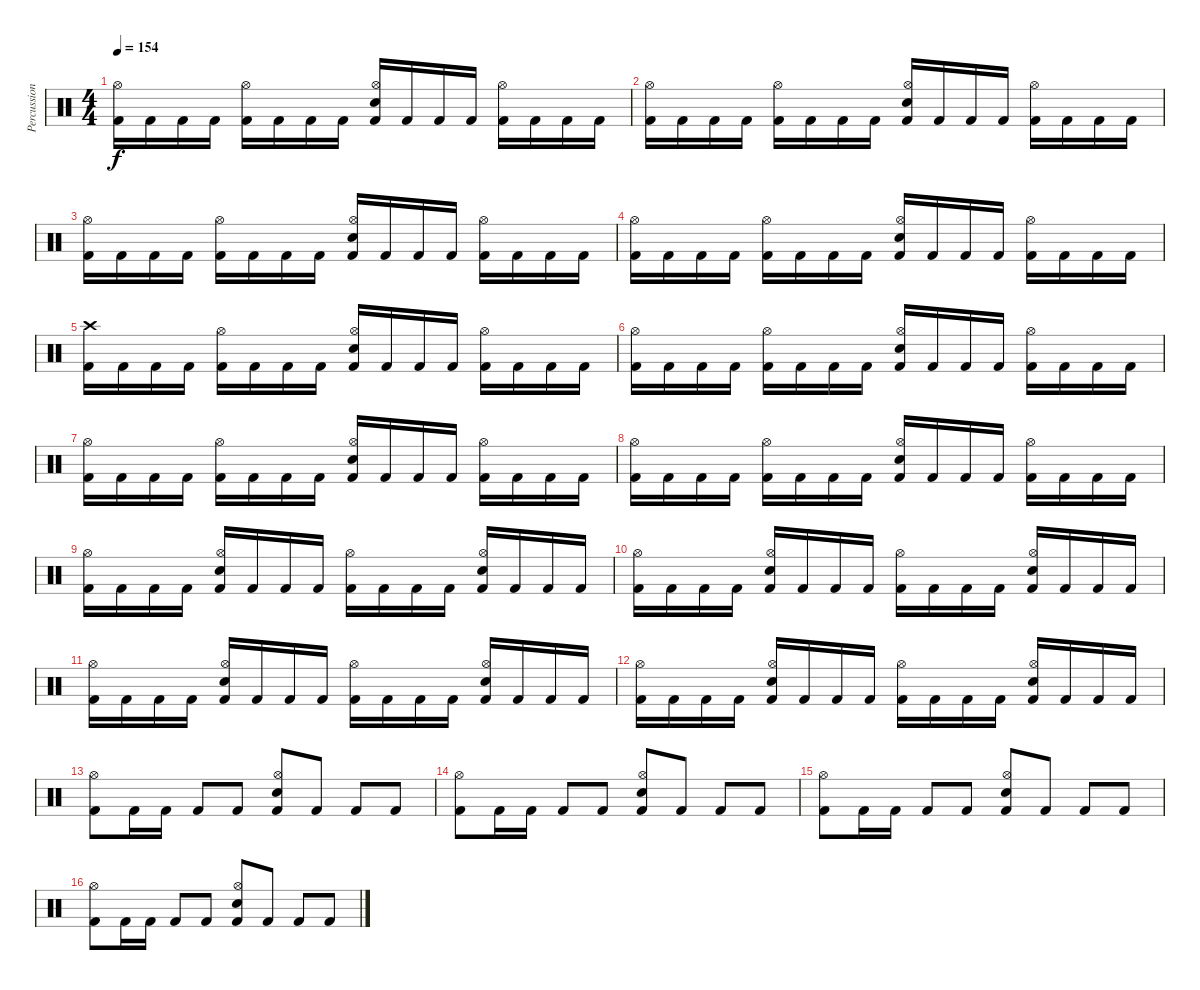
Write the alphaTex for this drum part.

\track ("Percussion" "Percussion") {instrument percussion}
\staff {score}
\articulation defaults
\ts (4 4)
\tempo 154
\clef neutral
\ks c
("Kick (hit) 2" "Hi-Hat (open)").16{dy f} "Kick (hit) 2".16 "Kick (hit) 2".16 "Kick (hit) 2".16 ("Kick (hit) 2" "Hi-Hat (open)").16 "Kick (hit) 2".16 "Kick (hit) 2".16 "Kick (hit) 2".16 ("Kick (hit) 2" "Hi-Hat (open)" "Electric Snare (hit)").16 "Kick (hit) 2".16 "Kick (hit) 2".16 "Kick (hit) 2".16 ("Kick (hit) 2" "Hi-Hat (open)").16 "Kick (hit) 2".16 "Kick (hit) 2".16 "Kick (hit) 2".16 |
("Kick (hit) 2" "Hi-Hat (open)").16 "Kick (hit) 2".16 "Kick (hit) 2".16 "Kick (hit) 2".16 ("Kick (hit) 2" "Hi-Hat (open)").16 "Kick (hit) 2".16 "Kick (hit) 2".16 "Kick (hit) 2".16 ("Kick (hit) 2" "Hi-Hat (open)" "Electric Snare (hit)").16 "Kick (hit) 2".16 "Kick (hit) 2".16 "Kick (hit) 2".16 ("Kick (hit) 2" "Hi-Hat (open)").16 "Kick (hit) 2".16 "Kick (hit) 2".16 "Kick (hit) 2".16 |
("Kick (hit) 2" "Hi-Hat (open)").16 "Kick (hit) 2".16 "Kick (hit) 2".16 "Kick (hit) 2".16 ("Kick (hit) 2" "Hi-Hat (open)").16 "Kick (hit) 2".16 "Kick (hit) 2".16 "Kick (hit) 2".16 ("Kick (hit) 2" "Hi-Hat (open)" "Electric Snare (hit)").16 "Kick (hit) 2".16 "Kick (hit) 2".16 "Kick (hit) 2".16 ("Kick (hit) 2" "Hi-Hat (open)").16 "Kick (hit) 2".16 "Kick (hit) 2".16 "Kick (hit) 2".16 |
("Kick (hit) 2" "Hi-Hat (open)").16 "Kick (hit) 2".16 "Kick (hit) 2".16 "Kick (hit) 2".16 ("Kick (hit) 2" "Hi-Hat (open)").16 "Kick (hit) 2".16 "Kick (hit) 2".16 "Kick (hit) 2".16 ("Kick (hit) 2" "Hi-Hat (open)" "Electric Snare (hit)").16 "Kick (hit) 2".16 "Kick (hit) 2".16 "Kick (hit) 2".16 ("Kick (hit) 2" "Hi-Hat (open)").16 "Kick (hit) 2".16 "Kick (hit) 2".16 "Kick (hit) 2".16 |
("Kick (hit) 2" "Crash high (hit)").16 "Kick (hit) 2".16 "Kick (hit) 2".16 "Kick (hit) 2".16 ("Kick (hit) 2" "Hi-Hat (open)").16 "Kick (hit) 2".16 "Kick (hit) 2".16 "Kick (hit) 2".16 ("Kick (hit) 2" "Hi-Hat (open)" "Electric Snare (hit)").16 "Kick (hit) 2".16 "Kick (hit) 2".16 "Kick (hit) 2".16 ("Kick (hit) 2" "Hi-Hat (open)").16 "Kick (hit) 2".16 "Kick (hit) 2".16 "Kick (hit) 2".16 |
("Kick (hit) 2" "Hi-Hat (open)").16 "Kick (hit) 2".16 "Kick (hit) 2".16 "Kick (hit) 2".16 ("Kick (hit) 2" "Hi-Hat (open)").16 "Kick (hit) 2".16 "Kick (hit) 2".16 "Kick (hit) 2".16 ("Kick (hit) 2" "Hi-Hat (open)" "Electric Snare (hit)").16 "Kick (hit) 2".16 "Kick (hit) 2".16 "Kick (hit) 2".16 ("Kick (hit) 2" "Hi-Hat (open)").16 "Kick (hit) 2".16 "Kick (hit) 2".16 "Kick (hit) 2".16 |
("Kick (hit) 2" "Hi-Hat (open)").16 "Kick (hit) 2".16 "Kick (hit) 2".16 "Kick (hit) 2".16 ("Kick (hit) 2" "Hi-Hat (open)").16 "Kick (hit) 2".16 "Kick (hit) 2".16 "Kick (hit) 2".16 ("Kick (hit) 2" "Hi-Hat (open)" "Electric Snare (hit)").16 "Kick (hit) 2".16 "Kick (hit) 2".16 "Kick (hit) 2".16 ("Kick (hit) 2" "Hi-Hat (open)").16 "Kick (hit) 2".16 "Kick (hit) 2".16 "Kick (hit) 2".16 |
("Kick (hit) 2" "Hi-Hat (open)").16 "Kick (hit) 2".16 "Kick (hit) 2".16 "Kick (hit) 2".16 ("Kick (hit) 2" "Hi-Hat (open)").16 "Kick (hit) 2".16 "Kick (hit) 2".16 "Kick (hit) 2".16 ("Kick (hit) 2" "Hi-Hat (open)" "Electric Snare (hit)").16 "Kick (hit) 2".16 "Kick (hit) 2".16 "Kick (hit) 2".16 ("Kick (hit) 2" "Hi-Hat (open)").16 "Kick (hit) 2".16 "Kick (hit) 2".16 "Kick (hit) 2".16 |
("Kick (hit) 2" "Hi-Hat (open)").16 "Kick (hit) 2".16 "Kick (hit) 2".16 "Kick (hit) 2".16 ("Kick (hit) 2" "Hi-Hat (open)" "Electric Snare (hit)").16 "Kick (hit) 2".16 "Kick (hit) 2".16 "Kick (hit) 2".16 ("Kick (hit) 2" "Hi-Hat (open)").16 "Kick (hit) 2".16 "Kick (hit) 2".16 "Kick (hit) 2".16 ("Kick (hit) 2" "Hi-Hat (open)" "Electric Snare (hit)").16 "Kick (hit) 2".16 "Kick (hit) 2".16 "Kick (hit) 2".16 |
("Kick (hit) 2" "Hi-Hat (open)").16 "Kick (hit) 2".16 "Kick (hit) 2".16 "Kick (hit) 2".16 ("Kick (hit) 2" "Hi-Hat (open)" "Electric Snare (hit)").16 "Kick (hit) 2".16 "Kick (hit) 2".16 "Kick (hit) 2".16 ("Kick (hit) 2" "Hi-Hat (open)").16 "Kick (hit) 2".16 "Kick (hit) 2".16 "Kick (hit) 2".16 ("Kick (hit) 2" "Hi-Hat (open)" "Electric Snare (hit)").16 "Kick (hit) 2".16 "Kick (hit) 2".16 "Kick (hit) 2".16 |
("Kick (hit) 2" "Hi-Hat (open)").16 "Kick (hit) 2".16 "Kick (hit) 2".16 "Kick (hit) 2".16 ("Kick (hit) 2" "Hi-Hat (open)" "Electric Snare (hit)").16 "Kick (hit) 2".16 "Kick (hit) 2".16 "Kick (hit) 2".16 ("Kick (hit) 2" "Hi-Hat (open)").16 "Kick (hit) 2".16 "Kick (hit) 2".16 "Kick (hit) 2".16 ("Kick (hit) 2" "Hi-Hat (open)" "Electric Snare (hit)").16 "Kick (hit) 2".16 "Kick (hit) 2".16 "Kick (hit) 2".16 |
("Kick (hit) 2" "Hi-Hat (open)").16 "Kick (hit) 2".16 "Kick (hit) 2".16 "Kick (hit) 2".16 ("Kick (hit) 2" "Hi-Hat (open)" "Electric Snare (hit)").16 "Kick (hit) 2".16 "Kick (hit) 2".16 "Kick (hit) 2".16 ("Kick (hit) 2" "Hi-Hat (open)").16 "Kick (hit) 2".16 "Kick (hit) 2".16 "Kick (hit) 2".16 ("Kick (hit) 2" "Hi-Hat (open)" "Electric Snare (hit)").16 "Kick (hit) 2".16 "Kick (hit) 2".16 "Kick (hit) 2".16 |
("Kick (hit) 2" "Hi-Hat (open)").8 "Kick (hit) 2".16 "Kick (hit) 2".16 "Kick (hit) 2".8 "Kick (hit) 2".8 ("Kick (hit) 2" "Hi-Hat (open)" "Electric Snare (hit)").8 "Kick (hit) 2".8 "Kick (hit) 2".8 "Kick (hit) 2".8 |
("Kick (hit) 2" "Hi-Hat (open)").8 "Kick (hit) 2".16 "Kick (hit) 2".16 "Kick (hit) 2".8 "Kick (hit) 2".8 ("Kick (hit) 2" "Hi-Hat (open)" "Electric Snare (hit)").8 "Kick (hit) 2".8 "Kick (hit) 2".8 "Kick (hit) 2".8 |
("Kick (hit) 2" "Hi-Hat (open)").8 "Kick (hit) 2".16 "Kick (hit) 2".16 "Kick (hit) 2".8 "Kick (hit) 2".8 ("Kick (hit) 2" "Hi-Hat (open)" "Electric Snare (hit)").8 "Kick (hit) 2".8 "Kick (hit) 2".8 "Kick (hit) 2".8 |
("Kick (hit) 2" "Hi-Hat (open)").8 "Kick (hit) 2".16 "Kick (hit) 2".16 "Kick (hit) 2".8 "Kick (hit) 2".8 ("Kick (hit) 2" "Hi-Hat (open)" "Electric Snare (hit)").8 "Kick (hit) 2".8 "Kick (hit) 2".8 "Kick (hit) 2".8
